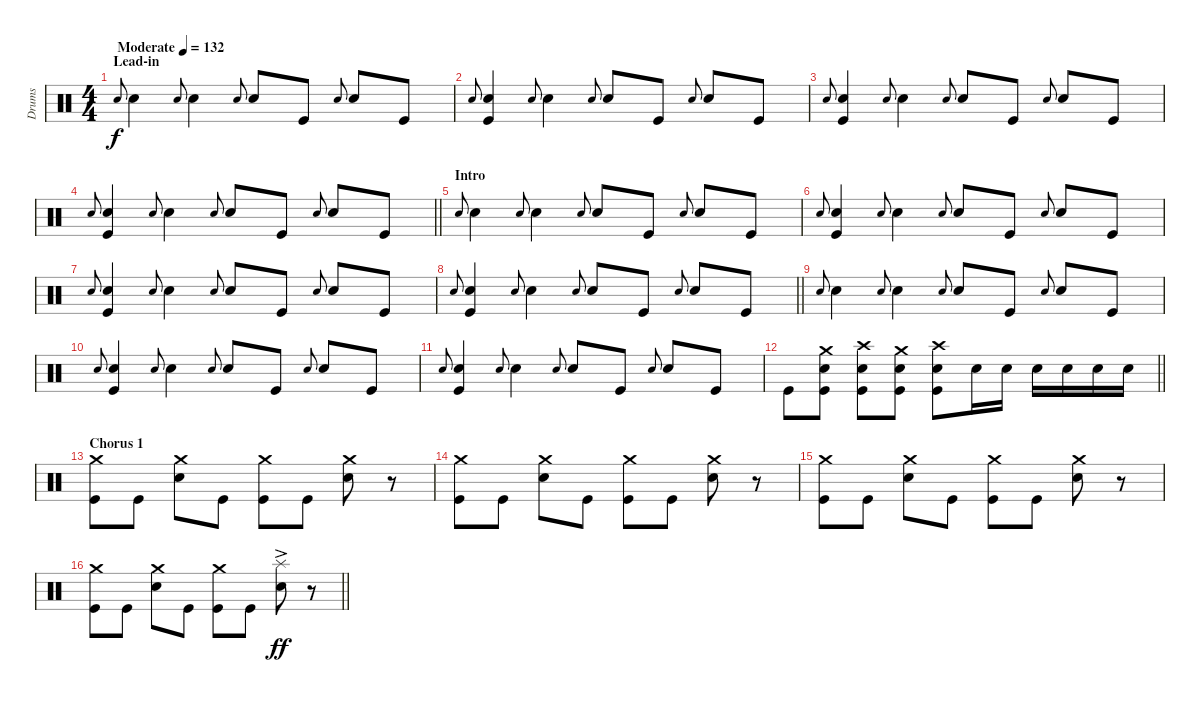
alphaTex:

\track ("Drums" "Drums") {instrument percussion}
\staff {score}
\articulation defaults
\ts (4 4)
\section ("" "Lead-in")
\tempo (132 "Moderate")
\clef neutral
\ks c "Snare (hit) 2".8{gr onbeat dy f} "Snare (hit) 2".4 "Snare (hit) 2".8{gr onbeat} "Snare (hit) 2".4 "Snare (hit) 2".8{gr onbeat} "Snare (hit) 2".8 "Kick (hit)".8 "Snare (hit) 2".8{gr onbeat} "Snare (hit) 2".8 "Kick (hit)".8
|
"Snare (hit) 2".8{gr onbeat} ("Snare (hit) 2" "Kick (hit)").4 "Snare (hit) 2".8{gr onbeat} "Snare (hit) 2".4 "Snare (hit) 2".8{gr onbeat} "Snare (hit) 2".8 "Kick (hit)".8 "Snare (hit) 2".8{gr onbeat} "Snare (hit) 2".8 "Kick (hit)".8 |
"Snare (hit) 2".8{gr onbeat} ("Snare (hit) 2" "Kick (hit)").4 "Snare (hit) 2".8{gr onbeat} "Snare (hit) 2".4 "Snare (hit) 2".8{gr onbeat} "Snare (hit) 2".8 "Kick (hit)".8 "Snare (hit) 2".8{gr onbeat} "Snare (hit) 2".8 "Kick (hit)".8 |
\barLineRight lightlight "Snare (hit) 2".8{gr onbeat}
("Snare (hit) 2" "Kick (hit)").4 "Snare (hit) 2".8{gr onbeat} "Snare (hit) 2".4 "Snare (hit) 2".8{gr onbeat} "Snare (hit) 2".8 "Kick (hit)".8 "Snare (hit) 2".8{gr onbeat} "Snare (hit) 2".8 "Kick (hit)".8 |
\section ("" "Intro")
"Snare (hit) 2".8{gr onbeat} "Snare (hit) 2".4 "Snare (hit) 2".8{gr onbeat} "Snare (hit) 2".4 "Snare (hit) 2".8{gr onbeat} "Snare (hit) 2".8 "Kick (hit)".8 "Snare (hit) 2".8{gr onbeat} "Snare (hit) 2".8 "Kick (hit)".8 |
"Snare (hit) 2".8{gr onbeat} ("Snare (hit) 2" "Kick (hit)").4 "Snare (hit) 2".8{gr onbeat} "Snare (hit) 2".4 "Snare (hit) 2".8{gr onbeat} "Snare (hit) 2".8 "Kick (hit)".8 "Snare (hit) 2".8{gr onbeat} "Snare (hit) 2".8 "Kick (hit)".8 |
"Snare (hit) 2".8{gr onbeat} ("Snare (hit) 2" "Kick (hit)").4 "Snare (hit) 2".8{gr onbeat} "Snare (hit) 2".4 "Snare (hit) 2".8{gr onbeat} "Snare (hit) 2".8 "Kick (hit)".8 "Snare (hit) 2".8{gr onbeat} "Snare (hit) 2".8 "Kick (hit)".8 |
\barLineRight lightlight "Snare (hit) 2".8{gr onbeat}
("Snare (hit) 2" "Kick (hit)").4 "Snare (hit) 2".8{gr onbeat} "Snare (hit) 2".4 "Snare (hit) 2".8{gr onbeat} "Snare (hit) 2".8 "Kick (hit)".8 "Snare (hit) 2".8{gr onbeat} "Snare (hit) 2".8 "Kick (hit)".8 |
"Snare (hit) 2".8{gr onbeat} "Snare (hit) 2".4 "Snare (hit) 2".8{gr onbeat} "Snare (hit) 2".4 "Snare (hit) 2".8{gr onbeat} "Snare (hit) 2".8 "Kick (hit)".8 "Snare (hit) 2".8{gr onbeat} "Snare (hit) 2".8 "Kick (hit)".8 |
"Snare (hit) 2".8{gr onbeat} ("Snare (hit) 2" "Kick (hit)").4 "Snare (hit) 2".8{gr onbeat} "Snare (hit) 2".4 "Snare (hit) 2".8{gr onbeat} "Snare (hit) 2".8 "Kick (hit)".8 "Snare (hit) 2".8{gr onbeat} "Snare (hit) 2".8 "Kick (hit)".8 |
"Snare (hit) 2".8{gr onbeat} ("Snare (hit) 2" "Kick (hit)").4 "Snare (hit) 2".8{gr onbeat} "Snare (hit) 2".4 "Snare (hit) 2".8{gr onbeat} "Snare (hit) 2".8 "Kick (hit)".8 "Snare (hit) 2".8{gr onbeat} "Snare (hit) 2".8 "Kick (hit)".8 |
\barLineRight lightlight "Kick (hit)".8
("Crash medium (hit)" "Snare (hit) 2" "Kick (hit)").8 ("Crash high (hit)" "Snare (hit) 2" "Kick (hit)").8 ("Crash medium (hit)" "Snare (hit) 2" "Kick (hit)").8 ("Crash high (hit)" "Snare (hit) 2" "Kick (hit)").8 "Snare (hit) 2".16 "Snare (hit) 2".16 "Snare (hit) 2".16 "Snare (hit) 2".16 "Snare (hit) 2".16 "Snare (hit) 2".16 |
\section ("" "Chorus 1")
("Crash medium (hit)" "Kick (hit)").8 "Kick (hit)".8 ("Crash medium (hit)" "Snare (hit) 2").8 "Kick (hit)".8 ("Crash medium (hit)" "Kick (hit)").8 "Kick (hit)".8 ("Crash medium (hit)" "Snare (hit) 2").8 r.8 |
("Crash medium (hit)" "Kick (hit)").8 "Kick (hit)".8 ("Crash medium (hit)" "Snare (hit) 2").8 "Kick (hit)".8 ("Crash medium (hit)" "Kick (hit)").8 "Kick (hit)".8 ("Crash medium (hit)" "Snare (hit) 2").8 r.8 |
("Crash medium (hit)" "Kick (hit)").8 "Kick (hit)".8 ("Crash medium (hit)" "Snare (hit) 2").8 "Kick (hit)".8 ("Crash medium (hit)" "Kick (hit)").8 "Kick (hit)".8 ("Crash medium (hit)" "Snare (hit) 2").8 r.8 |
\barLineRight lightlight
("Crash medium (hit)" "Kick (hit)").8 "Kick (hit)".8 ("Crash medium (hit)" "Snare (hit) 2").8 "Kick (hit)".8 ("Crash medium (hit)" "Kick (hit)").8 "Kick (hit)".8 ("Splash (hit)"{ac} "Snare (hit) 2").8{dy ff} r.8
